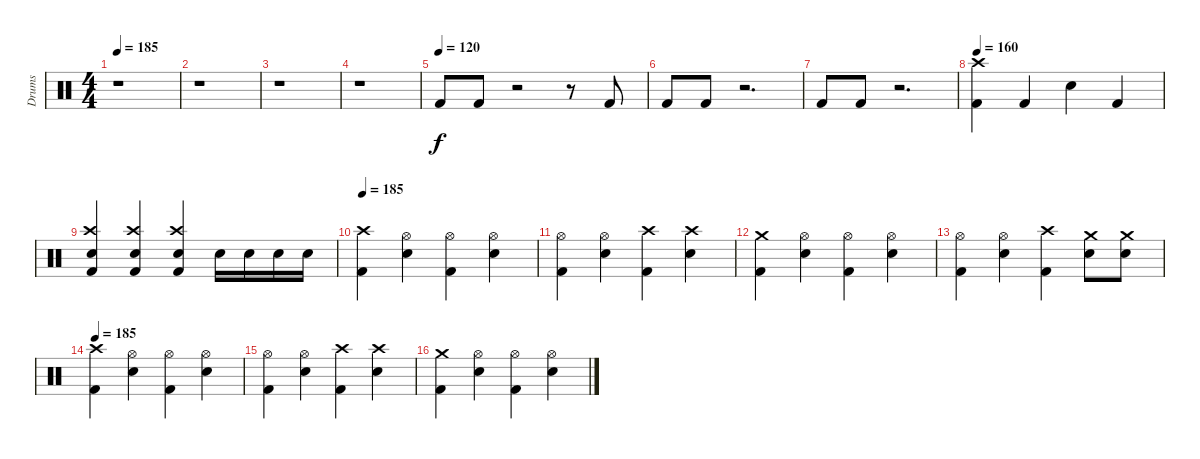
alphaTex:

\track ("Drums" "Drums") {instrument percussion}
\staff {score}
\articulation defaults
\ts (4 4)
\tempo 185
\tempo 120
\tempo 185
\clef neutral
\ks c
r.1{dy f} |
r.1 |
r.1 |
r.1 |
\tempo (120)
"Kick (hit) 2".8 "Kick (hit) 2".8 r.2 r.8 "Kick (hit) 2".8 |
"Kick (hit) 2".8 "Kick (hit) 2".8 r.2{d} |
"Kick (hit) 2".8 "Kick (hit) 2".8 r.2{d} |
\tempo 160
("Crash high (hit)" "Kick (hit) 2").4 "Kick (hit) 2".4 "Snare (hit) 2".4 "Kick (hit) 2".4 |
("Crash high (hit)" "Snare (hit) 2" "Kick (hit) 2").4 ("Crash high (hit)" "Snare (hit) 2" "Kick (hit) 2").4 ("Crash high (hit)" "Snare (hit) 2" "Kick (hit) 2").4 "Snare (hit) 2".16 "Snare (hit) 2".16 "Snare (hit) 2".16 "Snare (hit) 2".16 |
\tempo 185
("Crash high (hit)" "Kick (hit) 2").4 ("Hi-Hat (open)" "Snare (hit) 2").4 ("Hi-Hat (open)" "Kick (hit) 2").4 ("Hi-Hat (open)" "Snare (hit) 2").4 |
("Hi-Hat (open)" "Kick (hit) 2").4 ("Hi-Hat (open)" "Snare (hit) 2").4 ("Crash high (hit)" "Kick (hit) 2").4 ("Crash high (hit)" "Snare (hit) 2").4 |
("Crash medium (hit)" "Kick (hit) 2").4 ("Hi-Hat (open)" "Snare (hit) 2").4 ("Hi-Hat (open)" "Kick (hit) 2").4 ("Hi-Hat (open)" "Snare (hit) 2").4 |
("Hi-Hat (open)" "Kick (hit) 2").4 ("Hi-Hat (open)" "Snare (hit) 2").4 ("Crash high (hit)" "Kick (hit) 2").4 ("Crash medium (hit)" "Snare (hit) 2").8 ("Crash medium (hit)" "Snare (hit) 2").8 |
\tempo 185
("Crash high (hit)" "Kick (hit) 2").4 ("Hi-Hat (open)" "Snare (hit) 2").4 ("Hi-Hat (open)" "Kick (hit) 2").4 ("Hi-Hat (open)" "Snare (hit) 2").4 |
("Hi-Hat (open)" "Kick (hit) 2").4 ("Hi-Hat (open)" "Snare (hit) 2").4 ("Crash high (hit)" "Kick (hit) 2").4 ("Crash high (hit)" "Snare (hit) 2").4 |
("Crash medium (hit)" "Kick (hit) 2").4 ("Hi-Hat (open)" "Snare (hit) 2").4 ("Hi-Hat (open)" "Kick (hit) 2").4 ("Hi-Hat (open)" "Snare (hit) 2").4
